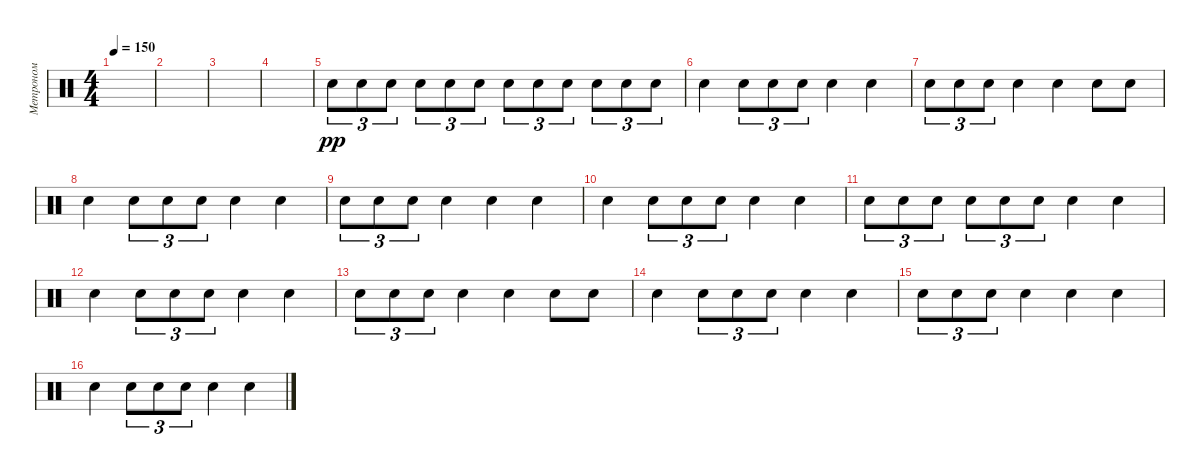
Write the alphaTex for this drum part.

\track ("Метроном" "Метроном") {mute instrument percussion}
\staff {score}
\articulation defaults
\ts (4 4)
\tempo 150
\clef neutral
\ks c
|
|
|
|
"Snare (hit) 2".8{tu (3 2) dy pp} "Snare (hit) 2".8{tu (3 2)} "Snare (hit) 2".8{tu (3 2)} "Snare (hit) 2".8{tu (3 2)} "Snare (hit) 2".8{tu (3 2)} "Snare (hit) 2".8{tu (3 2)} "Snare (hit) 2".8{tu (3 2)} "Snare (hit) 2".8{tu (3 2)} "Snare (hit) 2".8{tu (3 2)} "Snare (hit) 2".8{tu (3 2)} "Snare (hit) 2".8{tu (3 2)} "Snare (hit) 2".8{tu (3 2)} |
"Snare (hit) 2".4 "Snare (hit) 2".8{tu (3 2)} "Snare (hit) 2".8{tu (3 2)} "Snare (hit) 2".8{tu (3 2)} "Snare (hit) 2".4 "Snare (hit) 2".4 |
"Snare (hit) 2".8{tu (3 2)} "Snare (hit) 2".8{tu (3 2)} "Snare (hit) 2".8{tu (3 2)} "Snare (hit) 2".4 "Snare (hit) 2".4 "Snare (hit) 2".8 "Snare (hit) 2".8 |
"Snare (hit) 2".4 "Snare (hit) 2".8{tu (3 2)} "Snare (hit) 2".8{tu (3 2)} "Snare (hit) 2".8{tu (3 2)} "Snare (hit) 2".4 "Snare (hit) 2".4 |
"Snare (hit) 2".8{tu (3 2)} "Snare (hit) 2".8{tu (3 2)} "Snare (hit) 2".8{tu (3 2)} "Snare (hit) 2".4 "Snare (hit) 2".4 "Snare (hit) 2".4 |
"Snare (hit) 2".4 "Snare (hit) 2".8{tu (3 2)} "Snare (hit) 2".8{tu (3 2)} "Snare (hit) 2".8{tu (3 2)} "Snare (hit) 2".4 "Snare (hit) 2".4 |
"Snare (hit) 2".8{tu (3 2)} "Snare (hit) 2".8{tu (3 2)} "Snare (hit) 2".8{tu (3 2)} "Snare (hit) 2".8{tu (3 2)} "Snare (hit) 2".8{tu (3 2)} "Snare (hit) 2".8{tu (3 2)} "Snare (hit) 2".4 "Snare (hit) 2".4 |
"Snare (hit) 2".4 "Snare (hit) 2".8{tu (3 2)} "Snare (hit) 2".8{tu (3 2)} "Snare (hit) 2".8{tu (3 2)} "Snare (hit) 2".4 "Snare (hit) 2".4 |
"Snare (hit) 2".8{tu (3 2)} "Snare (hit) 2".8{tu (3 2)} "Snare (hit) 2".8{tu (3 2)} "Snare (hit) 2".4 "Snare (hit) 2".4 "Snare (hit) 2".8 "Snare (hit) 2".8 |
"Snare (hit) 2".4 "Snare (hit) 2".8{tu (3 2)} "Snare (hit) 2".8{tu (3 2)} "Snare (hit) 2".8{tu (3 2)} "Snare (hit) 2".4 "Snare (hit) 2".4 |
"Snare (hit) 2".8{tu (3 2)} "Snare (hit) 2".8{tu (3 2)} "Snare (hit) 2".8{tu (3 2)} "Snare (hit) 2".4 "Snare (hit) 2".4 "Snare (hit) 2".4 |
"Snare (hit) 2".4 "Snare (hit) 2".8{tu (3 2)} "Snare (hit) 2".8{tu (3 2)} "Snare (hit) 2".8{tu (3 2)} "Snare (hit) 2".4 "Snare (hit) 2".4
